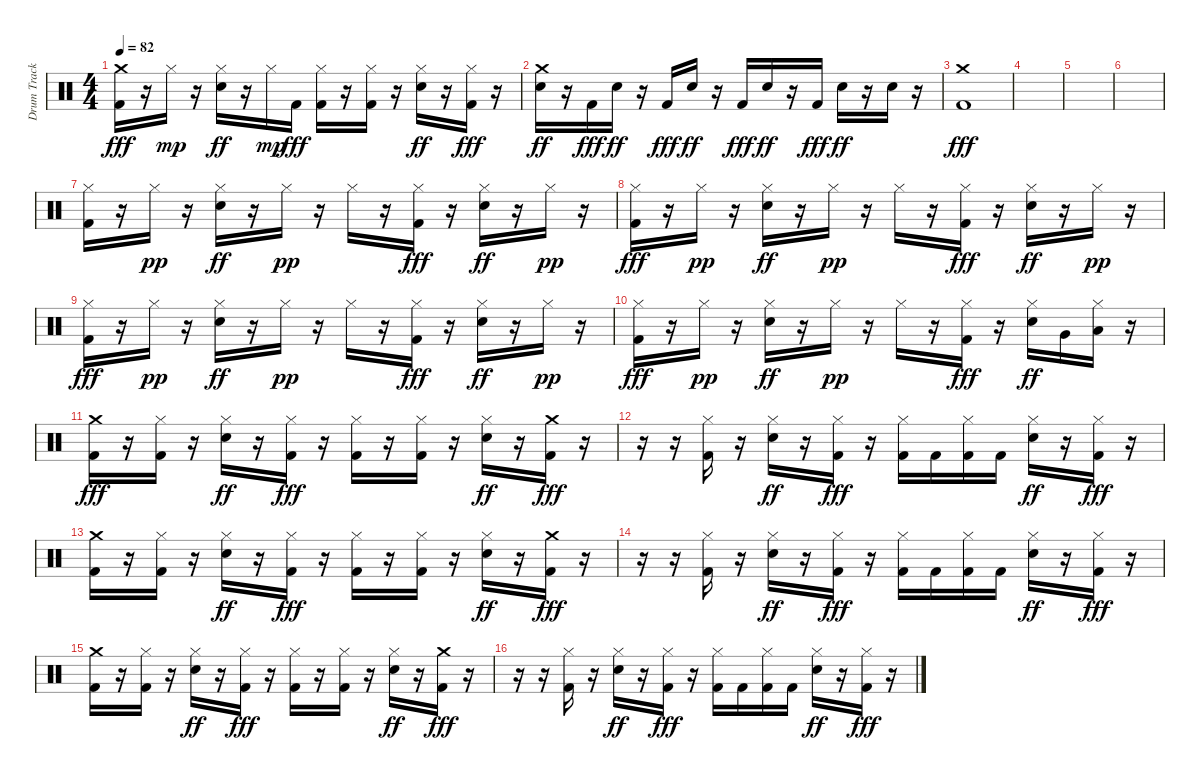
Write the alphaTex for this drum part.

\track ("Drum Track" "Drum Track") {instrument percussion}
\staff {score}
\articulation defaults
\ts (4 4)
\tempo 82
\clef neutral
\ks c
("Crash medium (hit)" "Kick (hit) 2").16{dy fff} r.16 "Hi-Hat (closed)".16{dy mp} r.16 ("Hi-Hat (closed)" "Electric Snare (hit)").16{dy ff} r.16 "Hi-Hat (closed)".16{dy mp} "Kick (hit) 2".16{dy fff} ("Hi-Hat (closed)" "Kick (hit) 2").16 r.16 ("Hi-Hat (closed)" "Kick (hit) 2").16 r.16 ("Hi-Hat (closed)" "Electric Snare (hit)").16{dy ff} r.16 ("Hi-Hat (closed)" "Kick (hit) 2").16{dy fff} r.16 |
("Crash medium (hit)" "Electric Snare (hit)").16{dy ff} r.16 "Kick (hit) 2".16{dy fff} "Electric Snare (hit)".16{dy ff} r.16 "Kick (hit) 2".16{dy fff} "Electric Snare (hit)".16{dy ff} r.16 "Kick (hit) 2".16{dy fff} "Electric Snare (hit)".16{dy ff} r.16 "Kick (hit) 2".16{dy fff} "Electric Snare (hit)".16{dy ff} r.16 "Electric Snare (hit)".16 r.16 |
("Crash medium (hit)" "Kick (hit) 2").1{dy fff} |
|
|
|
("Hi-Hat (closed)" "Kick (hit) 2").16 r.16 "Hi-Hat (closed)".16{dy pp} r.16 ("Hi-Hat (closed)" "Electric Snare (hit)").16{dy ff} r.16 "Hi-Hat (closed)".16{dy pp} r.16 "Hi-Hat (closed)".16 r.16 ("Hi-Hat (closed)" "Kick (hit) 2").16{dy fff} r.16 ("Hi-Hat (closed)" "Electric Snare (hit)").16{dy ff} r.16 "Hi-Hat (closed)".16{dy pp} r.16 |
("Hi-Hat (closed)" "Kick (hit) 2").16{dy fff} r.16 "Hi-Hat (closed)".16{dy pp} r.16 ("Hi-Hat (closed)" "Electric Snare (hit)").16{dy ff} r.16 "Hi-Hat (closed)".16{dy pp} r.16 "Hi-Hat (closed)".16 r.16 ("Hi-Hat (closed)" "Kick (hit) 2").16{dy fff} r.16 ("Hi-Hat (closed)" "Electric Snare (hit)").16{dy ff} r.16 "Hi-Hat (closed)".16{dy pp} r.16 |
("Hi-Hat (closed)" "Kick (hit) 2").16{dy fff} r.16 "Hi-Hat (closed)".16{dy pp} r.16 ("Hi-Hat (closed)" "Electric Snare (hit)").16{dy ff} r.16 "Hi-Hat (closed)".16{dy pp} r.16 "Hi-Hat (closed)".16 r.16 ("Hi-Hat (closed)" "Kick (hit) 2").16{dy fff} r.16 ("Hi-Hat (closed)" "Electric Snare (hit)").16{dy ff} r.16 "Hi-Hat (closed)".16{dy pp} r.16 |
("Hi-Hat (closed)" "Kick (hit) 2").16{dy fff} r.16 "Hi-Hat (closed)".16{dy pp} r.16 ("Hi-Hat (closed)" "Electric Snare (hit)").16{dy ff} r.16 "Hi-Hat (closed)".16{dy pp} r.16 "Hi-Hat (closed)".16 r.16 ("Hi-Hat (closed)" "Kick (hit) 2").16{dy fff} r.16 ("Hi-Hat (closed)" "Electric Snare (hit)").16{dy ff} "Very Low Tom (hit)".16 ("Hi-Hat (closed)" "Low Floor Tom (hit)").16 r.16 |
("Crash medium (hit)" "Kick (hit) 2").16{dy fff} r.16 ("Hi-Hat (closed)" "Kick (hit) 2").16 r.16 ("Hi-Hat (closed)" "Electric Snare (hit)").16{dy ff} r.16 ("Hi-Hat (closed)" "Kick (hit) 2").16{dy fff} r.16 ("Hi-Hat (closed)" "Kick (hit) 2").16 r.16 ("Hi-Hat (closed)" "Kick (hit) 2").16 r.16 ("Hi-Hat (closed)" "Electric Snare (hit)").16{dy ff} r.16 ("Crash medium (hit)" "Kick (hit) 2").16{dy fff} r.16 |
r.16 r.16 ("Hi-Hat (closed)" "Kick (hit) 2").16 r.16 ("Hi-Hat (closed)" "Electric Snare (hit)").16{dy ff} r.16 ("Hi-Hat (closed)" "Kick (hit) 2").16{dy fff} r.16 ("Hi-Hat (closed)" "Kick (hit) 2").16 "Kick (hit) 2".16 ("Hi-Hat (closed)" "Kick (hit) 2").16 "Kick (hit) 2".16 ("Hi-Hat (closed)" "Electric Snare (hit)").16{dy ff} r.16 ("Hi-Hat (closed)" "Kick (hit) 2").16{dy fff} r.16 |
("Crash medium (hit)" "Kick (hit) 2").16 r.16 ("Hi-Hat (closed)" "Kick (hit) 2").16 r.16 ("Hi-Hat (closed)" "Electric Snare (hit)").16{dy ff} r.16 ("Hi-Hat (closed)" "Kick (hit) 2").16{dy fff} r.16 ("Hi-Hat (closed)" "Kick (hit) 2").16 r.16 ("Hi-Hat (closed)" "Kick (hit) 2").16 r.16 ("Hi-Hat (closed)" "Electric Snare (hit)").16{dy ff} r.16 ("Crash medium (hit)" "Kick (hit) 2").16{dy fff} r.16 |
r.16 r.16 ("Hi-Hat (closed)" "Kick (hit) 2").16 r.16 ("Hi-Hat (closed)" "Electric Snare (hit)").16{dy ff} r.16 ("Hi-Hat (closed)" "Kick (hit) 2").16{dy fff} r.16 ("Hi-Hat (closed)" "Kick (hit) 2").16 "Kick (hit) 2".16 ("Hi-Hat (closed)" "Kick (hit) 2").16 "Kick (hit) 2".16 ("Hi-Hat (closed)" "Electric Snare (hit)").16{dy ff} r.16 ("Hi-Hat (closed)" "Kick (hit) 2").16{dy fff} r.16 |
("Crash medium (hit)" "Kick (hit) 2").16 r.16 ("Hi-Hat (closed)" "Kick (hit) 2").16 r.16 ("Hi-Hat (closed)" "Electric Snare (hit)").16{dy ff} r.16 ("Hi-Hat (closed)" "Kick (hit) 2").16{dy fff} r.16 ("Hi-Hat (closed)" "Kick (hit) 2").16 r.16 ("Hi-Hat (closed)" "Kick (hit) 2").16 r.16 ("Hi-Hat (closed)" "Electric Snare (hit)").16{dy ff} r.16 ("Crash medium (hit)" "Kick (hit) 2").16{dy fff} r.16 |
r.16 r.16 ("Hi-Hat (closed)" "Kick (hit) 2").16 r.16 ("Hi-Hat (closed)" "Electric Snare (hit)").16{dy ff} r.16 ("Hi-Hat (closed)" "Kick (hit) 2").16{dy fff} r.16 ("Hi-Hat (closed)" "Kick (hit) 2").16 "Kick (hit) 2".16 ("Hi-Hat (closed)" "Kick (hit) 2").16 "Kick (hit) 2".16 ("Hi-Hat (closed)" "Electric Snare (hit)").16{dy ff} r.16 ("Hi-Hat (closed)" "Kick (hit) 2").16{dy fff} r.16
